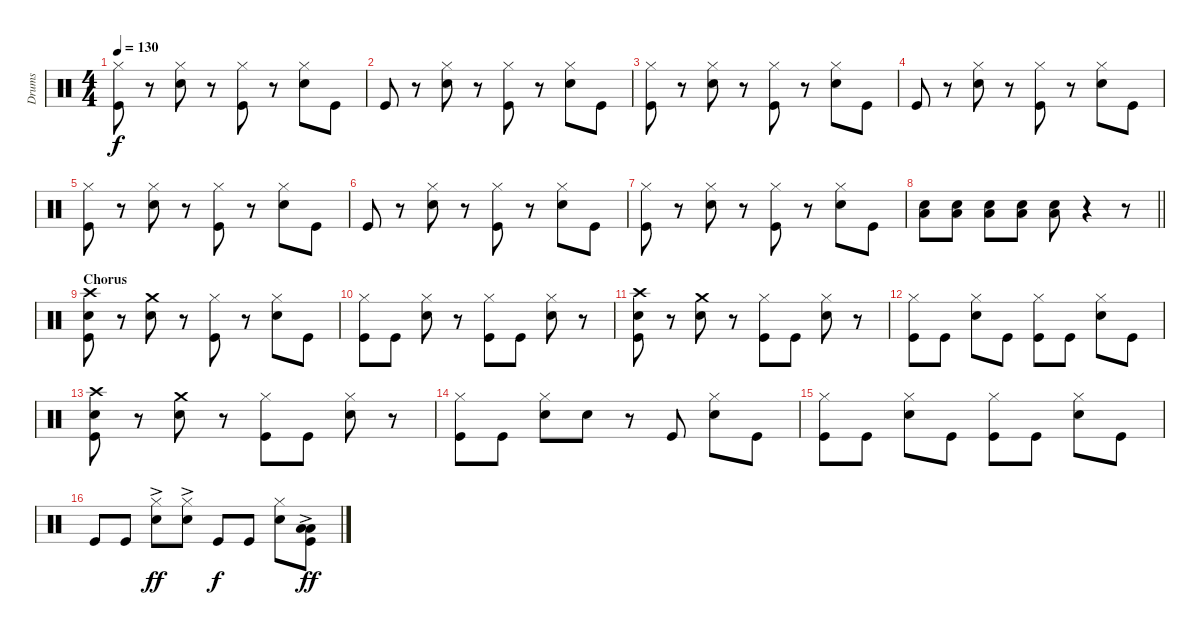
\track ("Drums" "Drums") {instrument percussion}
\staff {score}
\articulation defaults
\ts (4 4)
\tempo 130
\clef neutral
\ks c
("Kick (hit)" "Hi-Hat (closed)").8{dy f} r.8 ("Electric Snare (hit)" "Hi-Hat (closed)").8 r.8 ("Kick (hit)" "Hi-Hat (closed)").8 r.8 ("Hi-Hat (closed)" "Electric Snare (hit)").8 "Kick (hit)".8 |
"Kick (hit)".8 r.8 ("Hi-Hat (closed)" "Electric Snare (hit)").8 r.8 ("Hi-Hat (closed)" "Kick (hit)").8 r.8 ("Electric Snare (hit)" "Hi-Hat (closed)").8 "Kick (hit)".8 |
("Kick (hit)" "Hi-Hat (closed)").8 r.8 ("Electric Snare (hit)" "Hi-Hat (closed)").8 r.8 ("Kick (hit)" "Hi-Hat (closed)").8 r.8 ("Hi-Hat (closed)" "Electric Snare (hit)").8 "Kick (hit)".8 |
"Kick (hit)".8 r.8 ("Hi-Hat (closed)" "Electric Snare (hit)").8 r.8 ("Hi-Hat (closed)" "Kick (hit)").8 r.8 ("Electric Snare (hit)" "Hi-Hat (closed)").8 "Kick (hit)".8 |
("Kick (hit)" "Hi-Hat (closed)").8 r.8 ("Electric Snare (hit)" "Hi-Hat (closed)").8 r.8 ("Kick (hit)" "Hi-Hat (closed)").8 r.8 ("Hi-Hat (closed)" "Electric Snare (hit)").8 "Kick (hit)".8 |
"Kick (hit)".8 r.8 ("Hi-Hat (closed)" "Electric Snare (hit)").8 r.8 ("Hi-Hat (closed)" "Kick (hit)").8 r.8 ("Electric Snare (hit)" "Hi-Hat (closed)").8 "Kick (hit)".8 |
("Hi-Hat (closed)" "Kick (hit)").8 r.8 ("Hi-Hat (closed)" "Electric Snare (hit)").8 r.8 ("Hi-Hat (closed)" "Kick (hit)").8 r.8 ("Hi-Hat (closed)" "Electric Snare (hit)").8 "Kick (hit)".8 |
\barLineRight lightlight
("Low Floor Tom (hit)" "Electric Snare (hit)").8 ("Low Floor Tom (hit)" "Electric Snare (hit)").8 ("Low Floor Tom (hit)" "Electric Snare (hit)").8 ("Low Floor Tom (hit)" "Electric Snare (hit)").8 ("Low Floor Tom (hit)" "Electric Snare (hit)").8 r.4 r.8 |
\section ("" "Chorus")
("Crash high (hit)" "Electric Snare (hit)" "Kick (hit)").8 r.8 ("Crash medium (hit)" "Electric Snare (hit)").8 r.8 ("Hi-Hat (closed)" "Kick (hit)").8 r.8 ("Hi-Hat (closed)" "Electric Snare (hit)").8 "Kick (hit)".8 |
("Hi-Hat (closed)" "Kick (hit)").8 "Kick (hit)".8 ("Hi-Hat (closed)" "Electric Snare (hit)").8 r.8 ("Hi-Hat (closed)" "Kick (hit)").8 "Kick (hit)".8 ("Hi-Hat (closed)" "Electric Snare (hit)").8 r.8 |
("Crash high (hit)" "Electric Snare (hit)" "Kick (hit)").8 r.8 ("Crash medium (hit)" "Electric Snare (hit)").8 r.8 ("Hi-Hat (closed)" "Kick (hit)").8 "Kick (hit)".8 ("Hi-Hat (closed)" "Electric Snare (hit)").8 r.8 |
("Hi-Hat (closed)" "Kick (hit)").8 "Kick (hit)".8 ("Hi-Hat (closed)" "Electric Snare (hit)").8 "Kick (hit)".8 ("Hi-Hat (closed)" "Kick (hit)").8 "Kick (hit)".8 ("Hi-Hat (closed)" "Electric Snare (hit)").8 "Kick (hit)".8 |
("Crash high (hit)" "Kick (hit)" "Electric Snare (hit)").8 r.8 ("Crash medium (hit)" "Electric Snare (hit)").8 r.8 ("Hi-Hat (closed)" "Kick (hit)").8 "Kick (hit)".8 ("Hi-Hat (closed)" "Electric Snare (hit)").8 r.8 |
("Hi-Hat (closed)" "Kick (hit)").8 "Kick (hit)".8 ("Hi-Hat (closed)" "Electric Snare (hit)").8 "Electric Snare (hit)".8 r.8 "Kick (hit)".8 ("Hi-Hat (closed)" "Electric Snare (hit)").8 "Kick (hit)".8 |
("Hi-Hat (closed)" "Kick (hit)").8 "Kick (hit)".8 ("Hi-Hat (closed)" "Electric Snare (hit)").8 "Kick (hit)".8 ("Hi-Hat (closed)" "Kick (hit)").8 "Kick (hit)".8 ("Hi-Hat (closed)" "Electric Snare (hit)").8 "Kick (hit)".8 |
"Kick (hit)".8 "Kick (hit)".8 ("Hi-Hat (closed)"{ac} "Electric Snare (hit)"{ac}).8{dy ff} ("Hi-Hat (closed)"{ac} "Electric Snare (hit)"{ac}).8 "Kick (hit)".8{dy f} "Kick (hit)".8 ("Hi-Hat (closed)" "Electric Snare (hit)").8 ("Kick (hit)"{ac} "Low Floor Tom (hit)"{ac} "Low Tom (hit)"{ac}).8{dy ff}
